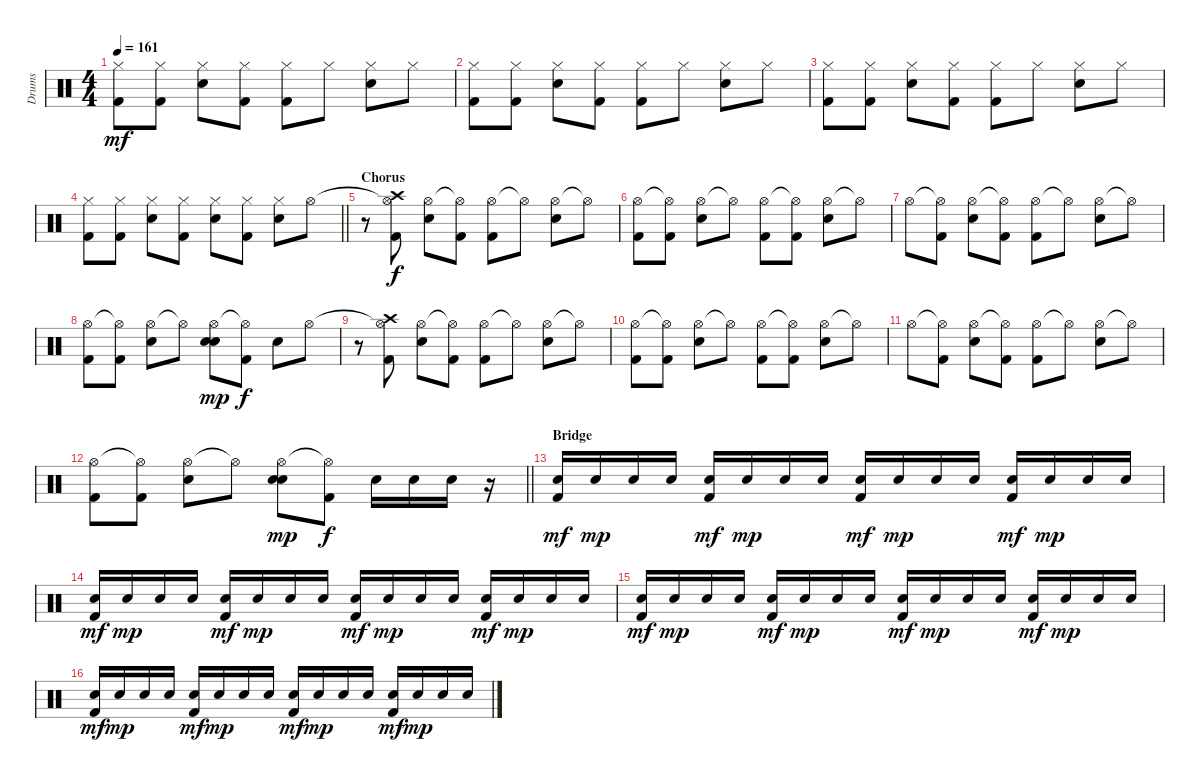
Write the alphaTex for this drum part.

\track ("Drums" "Drums") {instrument percussion}
\staff {score}
\articulation defaults
\ts (4 4)
\tempo 161
\clef neutral
\ks c
("Hi-Hat (closed)" "Kick (hit) 2").8{dy mf} ("Hi-Hat (closed)" "Kick (hit) 2").8 ("Hi-Hat (closed)" "Electric Snare (hit)").8 ("Hi-Hat (closed)" "Kick (hit) 2").8 ("Hi-Hat (closed)" "Kick (hit) 2").8 "Hi-Hat (closed)".8 ("Hi-Hat (closed)" "Electric Snare (hit)").8 "Hi-Hat (closed)".8 |
("Hi-Hat (closed)" "Kick (hit) 2").8 ("Hi-Hat (closed)" "Kick (hit) 2").8 ("Hi-Hat (closed)" "Electric Snare (hit)").8 ("Hi-Hat (closed)" "Kick (hit) 2").8 ("Hi-Hat (closed)" "Kick (hit) 2").8 "Hi-Hat (closed)".8 ("Hi-Hat (closed)" "Electric Snare (hit)").8 "Hi-Hat (closed)".8 |
("Hi-Hat (closed)" "Kick (hit) 2").8 ("Hi-Hat (closed)" "Kick (hit) 2").8 ("Hi-Hat (closed)" "Electric Snare (hit)").8 ("Hi-Hat (closed)" "Kick (hit) 2").8 ("Hi-Hat (closed)" "Kick (hit) 2").8 "Hi-Hat (closed)".8 ("Hi-Hat (closed)" "Electric Snare (hit)").8 "Hi-Hat (closed)".8 |
\barLineRight lightlight
("Hi-Hat (closed)" "Kick (hit) 2").8 ("Hi-Hat (closed)" "Kick (hit) 2").8 ("Hi-Hat (closed)" "Electric Snare (hit)").8 ("Hi-Hat (closed)" "Kick (hit) 2").8 ("Hi-Hat (closed)" "Electric Snare (hit)").8 ("Hi-Hat (closed)" "Kick (hit) 2").8 ("Hi-Hat (closed)" "Electric Snare (hit)").8 "Hi-Hat (open)".8 |
\section ("" "Chorus")
r.8 ("Hi-Hat (open)"{t} "Kick (hit) 2" "Crash high (hit)").8{dy f} ("Hi-Hat (open)" "Electric Snare (hit)").8 ("Hi-Hat (open)"{t} "Kick (hit) 2").8 ("Hi-Hat (open)" "Kick (hit) 2").8 "Hi-Hat (open)"{t}.8 ("Hi-Hat (open)" "Electric Snare (hit)").8 "Hi-Hat (open)"{t}.8 |
("Hi-Hat (open)" "Kick (hit) 2").8 ("Hi-Hat (open)"{t} "Kick (hit) 2").8 ("Hi-Hat (open)" "Electric Snare (hit)").8 "Hi-Hat (open)"{t}.8 ("Hi-Hat (open)" "Kick (hit) 2").8 ("Hi-Hat (open)"{t} "Kick (hit) 2").8 ("Hi-Hat (open)" "Electric Snare (hit)").8 "Hi-Hat (open)"{t}.8 |
"Hi-Hat (open)".8 ("Hi-Hat (open)"{t} "Kick (hit) 2").8 ("Hi-Hat (open)" "Electric Snare (hit)").8 ("Hi-Hat (open)"{t} "Kick (hit) 2").8 ("Hi-Hat (open)" "Kick (hit) 2").8 "Hi-Hat (open)"{t}.8 ("Hi-Hat (open)" "Electric Snare (hit)").8 "Hi-Hat (open)"{t}.8 |
("Hi-Hat (open)" "Kick (hit) 2").8 ("Hi-Hat (open)"{t} "Kick (hit) 2").8 ("Hi-Hat (open)" "Electric Snare (hit)").8 "Hi-Hat (open)"{t}.8 ("Hi-Hat (open)" "Electric Snare (hit)" "Electric Snare (hit)").8{dy mp} ("Hi-Hat (open)"{t} "Kick (hit) 2").8{dy f} "Electric Snare (hit)".8 "Hi-Hat (open)".8 |
r.8 ("Hi-Hat (open)"{t} "Kick (hit) 2" "Crash high (hit)").8 ("Hi-Hat (open)" "Electric Snare (hit)").8 ("Hi-Hat (open)"{t} "Kick (hit) 2").8 ("Hi-Hat (open)" "Kick (hit) 2").8 "Hi-Hat (open)"{t}.8 ("Hi-Hat (open)" "Electric Snare (hit)").8 "Hi-Hat (open)"{t}.8 |
("Hi-Hat (open)" "Kick (hit) 2").8 ("Hi-Hat (open)"{t} "Kick (hit) 2").8 ("Hi-Hat (open)" "Electric Snare (hit)").8 "Hi-Hat (open)"{t}.8 ("Hi-Hat (open)" "Kick (hit) 2").8 ("Hi-Hat (open)"{t} "Kick (hit) 2").8 ("Hi-Hat (open)" "Electric Snare (hit)").8 "Hi-Hat (open)"{t}.8 |
"Hi-Hat (open)".8 ("Hi-Hat (open)"{t} "Kick (hit) 2").8 ("Hi-Hat (open)" "Electric Snare (hit)").8 ("Hi-Hat (open)"{t} "Kick (hit) 2").8 ("Hi-Hat (open)" "Kick (hit) 2").8 "Hi-Hat (open)"{t}.8 ("Hi-Hat (open)" "Electric Snare (hit)").8 "Hi-Hat (open)"{t}.8 |
\barLineRight lightlight
("Hi-Hat (open)" "Kick (hit) 2").8 ("Hi-Hat (open)"{t} "Kick (hit) 2").8 ("Hi-Hat (open)" "Electric Snare (hit)").8 "Hi-Hat (open)"{t}.8 ("Hi-Hat (open)" "Electric Snare (hit)" "Electric Snare (hit)").8{dy mp} ("Hi-Hat (open)"{t} "Kick (hit) 2").8{dy f} "Electric Snare (hit)".16 "Electric Snare (hit)".16 "Electric Snare (hit)".16 r.16 |
\section ("" "Bridge")
("Kick (hit) 2" "Electric Snare (hit)").16{dy mf} "Electric Snare (hit)".16{dy mp} "Electric Snare (hit)".16 "Electric Snare (hit)".16 ("Kick (hit) 2" "Electric Snare (hit)").16{dy mf} "Electric Snare (hit)".16{dy mp} "Electric Snare (hit)".16 "Electric Snare (hit)".16 ("Kick (hit) 2" "Electric Snare (hit)").16{dy mf} "Electric Snare (hit)".16{dy mp} "Electric Snare (hit)".16 "Electric Snare (hit)".16 ("Kick (hit) 2" "Electric Snare (hit)").16{dy mf} "Electric Snare (hit)".16{dy mp} "Electric Snare (hit)".16 "Electric Snare (hit)".16 |
("Kick (hit) 2" "Electric Snare (hit)").16{dy mf} "Electric Snare (hit)".16{dy mp} "Electric Snare (hit)".16 "Electric Snare (hit)".16 ("Kick (hit) 2" "Electric Snare (hit)").16{dy mf} "Electric Snare (hit)".16{dy mp} "Electric Snare (hit)".16 "Electric Snare (hit)".16 ("Kick (hit) 2" "Electric Snare (hit)").16{dy mf} "Electric Snare (hit)".16{dy mp} "Electric Snare (hit)".16 "Electric Snare (hit)".16 ("Kick (hit) 2" "Electric Snare (hit)").16{dy mf} "Electric Snare (hit)".16{dy mp} "Electric Snare (hit)".16 "Electric Snare (hit)".16 |
("Kick (hit) 2" "Electric Snare (hit)").16{dy mf} "Electric Snare (hit)".16{dy mp} "Electric Snare (hit)".16 "Electric Snare (hit)".16 ("Kick (hit) 2" "Electric Snare (hit)").16{dy mf} "Electric Snare (hit)".16{dy mp} "Electric Snare (hit)".16 "Electric Snare (hit)".16 ("Kick (hit) 2" "Electric Snare (hit)").16{dy mf} "Electric Snare (hit)".16{dy mp} "Electric Snare (hit)".16 "Electric Snare (hit)".16 ("Kick (hit) 2" "Electric Snare (hit)").16{dy mf} "Electric Snare (hit)".16{dy mp} "Electric Snare (hit)".16 "Electric Snare (hit)".16 |
("Kick (hit) 2" "Electric Snare (hit)").16{dy mf} "Electric Snare (hit)".16{dy mp} "Electric Snare (hit)".16 "Electric Snare (hit)".16 ("Kick (hit) 2" "Electric Snare (hit)").16{dy mf} "Electric Snare (hit)".16{dy mp} "Electric Snare (hit)".16 "Electric Snare (hit)".16 ("Kick (hit) 2" "Electric Snare (hit)").16{dy mf} "Electric Snare (hit)".16{dy mp} "Electric Snare (hit)".16 "Electric Snare (hit)".16 ("Kick (hit) 2" "Electric Snare (hit)").16{dy mf} "Electric Snare (hit)".16{dy mp} "Electric Snare (hit)".16 "Electric Snare (hit)".16
